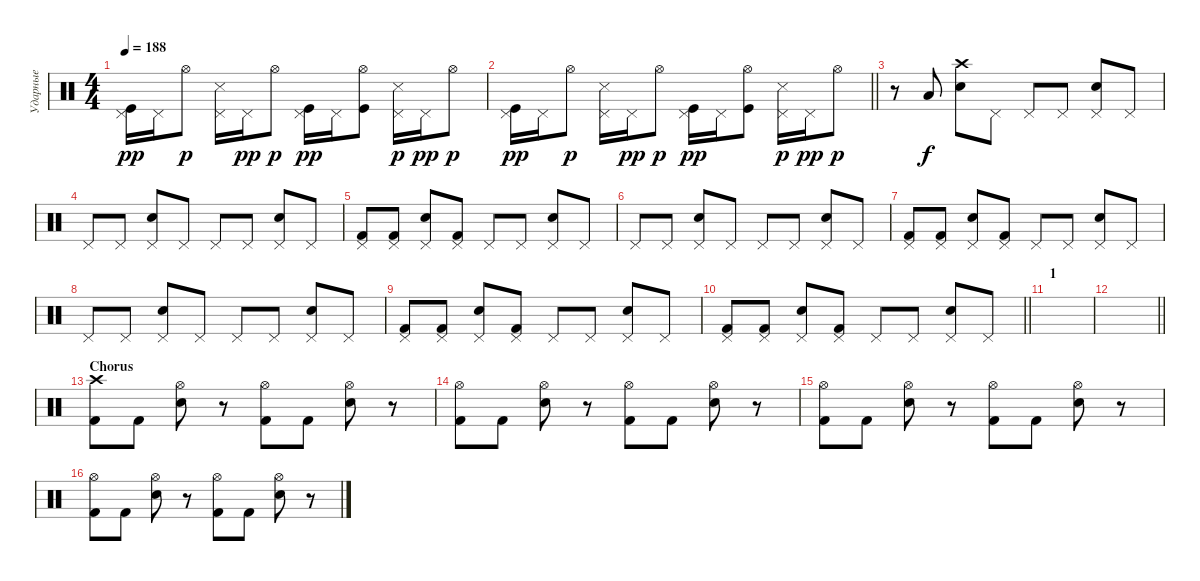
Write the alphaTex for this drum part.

\track ("Ударные" "Ударные") {instrument percussion}
\staff {score}
\articulation defaults
\ts (4 4)
\tempo 188
\clef neutral
\ks c
("Pedal Hi-Hat (hit)" "Kick (hit)").16{dy pp} "Pedal Hi-Hat (hit)".16 "Hi-Hat (open)".8{dy p} ("Pedal Hi-Hat (hit)" "Snare (side stick) 3").16 "Pedal Hi-Hat (hit)".16{dy pp} "Hi-Hat (open)".8{dy p} ("Pedal Hi-Hat (hit)" "Kick (hit)").16{dy pp} "Pedal Hi-Hat (hit)".16 ("Hi-Hat (open)" "Kick (hit)").8 ("Pedal Hi-Hat (hit)" "Snare (side stick) 3").16{dy p} "Pedal Hi-Hat (hit)".16{dy pp} "Hi-Hat (open)".8{dy p} |
\barLineRight lightlight
("Pedal Hi-Hat (hit)" "Kick (hit)").16{dy pp} "Pedal Hi-Hat (hit)".16 "Hi-Hat (open)".8{dy p} ("Pedal Hi-Hat (hit)" "Snare (side stick) 3").16 "Pedal Hi-Hat (hit)".16{dy pp} "Hi-Hat (open)".8{dy p} ("Pedal Hi-Hat (hit)" "Kick (hit)").16{dy pp} "Pedal Hi-Hat (hit)".16 ("Hi-Hat (open)" "Kick (hit)").8 ("Pedal Hi-Hat (hit)" "Snare (side stick) 3").16{dy p} "Pedal Hi-Hat (hit)".16{dy pp} "Hi-Hat (open)".8{dy p} |
r.8 "Low Tom (hit)".8{dy f} ("Crash high (hit)" "Electric Snare (hit)").8 "Pedal Hi-Hat (hit)".8 "Pedal Hi-Hat (hit)".8 "Pedal Hi-Hat (hit)".8 ("Pedal Hi-Hat (hit)" "Electric Snare (hit)").8 "Pedal Hi-Hat (hit)".8 |
"Pedal Hi-Hat (hit)".8 "Pedal Hi-Hat (hit)".8 ("Pedal Hi-Hat (hit)" "Electric Snare (hit)").8 "Pedal Hi-Hat (hit)".8 "Pedal Hi-Hat (hit)".8 "Pedal Hi-Hat (hit)".8 ("Pedal Hi-Hat (hit)" "Electric Snare (hit)").8 "Pedal Hi-Hat (hit)".8 |
("Pedal Hi-Hat (hit)" "Kick (hit) 2").8 ("Pedal Hi-Hat (hit)" "Kick (hit) 2").8 ("Pedal Hi-Hat (hit)" "Electric Snare (hit)").8 ("Pedal Hi-Hat (hit)" "Kick (hit) 2").8 "Pedal Hi-Hat (hit)".8 "Pedal Hi-Hat (hit)".8 ("Pedal Hi-Hat (hit)" "Electric Snare (hit)").8 "Pedal Hi-Hat (hit)".8 |
"Pedal Hi-Hat (hit)".8 "Pedal Hi-Hat (hit)".8 ("Pedal Hi-Hat (hit)" "Electric Snare (hit)").8 "Pedal Hi-Hat (hit)".8 "Pedal Hi-Hat (hit)".8 "Pedal Hi-Hat (hit)".8 ("Pedal Hi-Hat (hit)" "Electric Snare (hit)").8 "Pedal Hi-Hat (hit)".8 |
("Pedal Hi-Hat (hit)" "Kick (hit) 2").8 ("Pedal Hi-Hat (hit)" "Kick (hit) 2").8 ("Pedal Hi-Hat (hit)" "Electric Snare (hit)").8 ("Pedal Hi-Hat (hit)" "Kick (hit) 2").8 "Pedal Hi-Hat (hit)".8 "Pedal Hi-Hat (hit)".8 ("Pedal Hi-Hat (hit)" "Electric Snare (hit)").8 "Pedal Hi-Hat (hit)".8 |
"Pedal Hi-Hat (hit)".8 "Pedal Hi-Hat (hit)".8 ("Pedal Hi-Hat (hit)" "Electric Snare (hit)").8 "Pedal Hi-Hat (hit)".8 "Pedal Hi-Hat (hit)".8 "Pedal Hi-Hat (hit)".8 ("Pedal Hi-Hat (hit)" "Electric Snare (hit)").8 "Pedal Hi-Hat (hit)".8 |
("Pedal Hi-Hat (hit)" "Kick (hit) 2").8 ("Pedal Hi-Hat (hit)" "Kick (hit) 2").8 ("Pedal Hi-Hat (hit)" "Electric Snare (hit)").8 ("Pedal Hi-Hat (hit)" "Kick (hit) 2").8 "Pedal Hi-Hat (hit)".8 "Pedal Hi-Hat (hit)".8 ("Pedal Hi-Hat (hit)" "Electric Snare (hit)").8 "Pedal Hi-Hat (hit)".8 |
\barLineRight lightlight
("Pedal Hi-Hat (hit)" "Kick (hit) 2").8 ("Pedal Hi-Hat (hit)" "Kick (hit) 2").8 ("Pedal Hi-Hat (hit)" "Electric Snare (hit)").8 ("Pedal Hi-Hat (hit)" "Kick (hit) 2").8 "Pedal Hi-Hat (hit)".8 "Pedal Hi-Hat (hit)".8 ("Pedal Hi-Hat (hit)" "Electric Snare (hit)").8 "Pedal Hi-Hat (hit)".8 |
\section ("" "1")
|
\barLineRight lightlight
|
\section ("" "Chorus")
("Crash high (hit)" "Kick (hit) 2").8 "Kick (hit) 2".8 ("Hi-Hat (open)" "Electric Snare (hit)").8 r.8 ("Hi-Hat (open)" "Kick (hit) 2").8 "Kick (hit) 2".8 ("Hi-Hat (open)" "Electric Snare (hit)").8 r.8 |
("Hi-Hat (open)" "Kick (hit) 2").8 "Kick (hit) 2".8 ("Hi-Hat (open)" "Electric Snare (hit)").8 r.8 ("Hi-Hat (open)" "Kick (hit) 2").8 "Kick (hit) 2".8 ("Hi-Hat (open)" "Electric Snare (hit)").8 r.8 |
("Hi-Hat (open)" "Kick (hit) 2").8 "Kick (hit) 2".8 ("Hi-Hat (open)" "Electric Snare (hit)").8 r.8 ("Hi-Hat (open)" "Kick (hit) 2").8 "Kick (hit) 2".8 ("Hi-Hat (open)" "Electric Snare (hit)").8 r.8 |
("Hi-Hat (open)" "Kick (hit) 2").8 "Kick (hit) 2".8 ("Hi-Hat (open)" "Electric Snare (hit)").8 r.8 ("Hi-Hat (open)" "Kick (hit) 2").8 "Kick (hit) 2".8 ("Hi-Hat (open)" "Electric Snare (hit)").8 r.8
